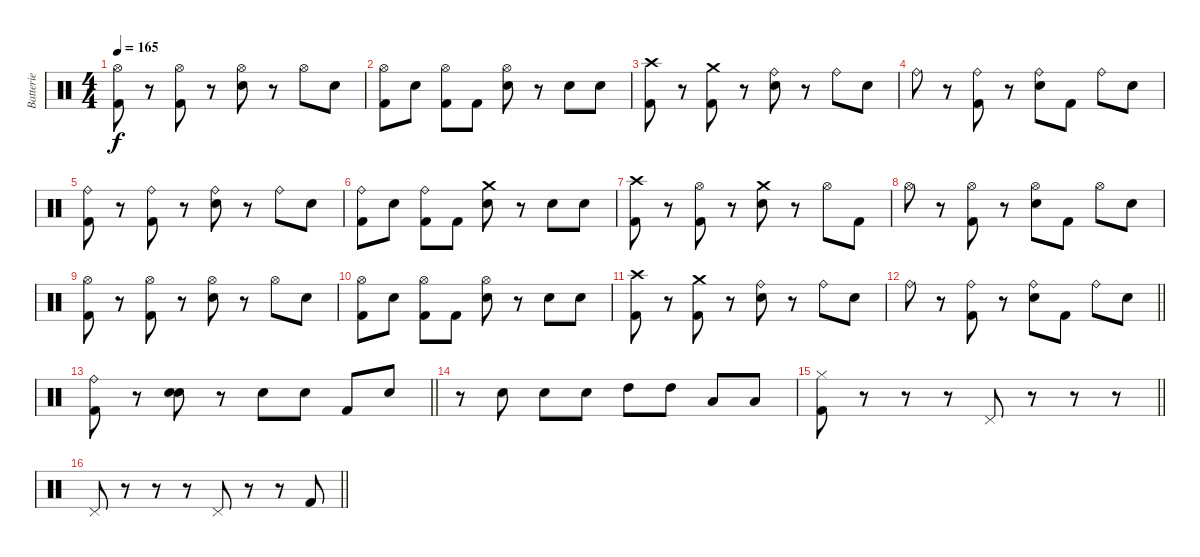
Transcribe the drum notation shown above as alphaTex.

\track ("Batterie" "Batterie") {instrument percussion}
\staff {score}
\articulation defaults
\ts (4 4)
\tempo 165
\clef neutral
\ks c
("Hi-Hat (open)" "Kick (hit) 2").8{dy f} r.8 ("Hi-Hat (open)" "Kick (hit) 2").8 r.8 ("Hi-Hat (open)" "Electric Snare (hit)").8 r.8 "Hi-Hat (open)".8 "Electric Snare (hit)".8 |
("Hi-Hat (open)" "Kick (hit) 2").8 "Electric Snare (hit)".8 ("Hi-Hat (open)" "Kick (hit) 2").8 "Kick (hit) 2".8 ("Hi-Hat (open)" "Electric Snare (hit)").8 r.8 "Electric Snare (hit)".8 "Electric Snare (hit)".8 |
("Crash high (hit)" "Kick (hit) 2").8 r.8 ("Crash medium (hit)" "Kick (hit) 2").8 r.8 ("Ride (bell)" "Electric Snare (hit)").8 r.8 "Ride (bell)".8 "Electric Snare (hit)".8 |
"Ride (bell)".8 r.8 ("Ride (bell)" "Kick (hit) 2").8 r.8 ("Ride (bell)" "Electric Snare (hit)").8 "Kick (hit) 2".8 "Ride (bell)".8 "Electric Snare (hit)".8 |
("Ride (bell)" "Kick (hit) 2").8 r.8 ("Ride (bell)" "Kick (hit) 2").8 r.8 ("Ride (bell)" "Electric Snare (hit)").8 r.8 "Ride (bell)".8 "Electric Snare (hit)".8 |
("Ride (bell)" "Kick (hit) 2").8 "Electric Snare (hit)".8 ("Ride (bell)" "Kick (hit) 2").8 "Kick (hit) 2".8 ("Crash medium (hit)" "Electric Snare (hit)").8 r.8 "Electric Snare (hit)".8 "Electric Snare (hit)".8 |
("Crash high (hit)" "Kick (hit) 2").8 r.8 ("Hi-Hat (open)" "Kick (hit) 2").8 r.8 ("Crash medium (hit)" "Electric Snare (hit)").8 r.8 "Hi-Hat (open)".8 "Kick (hit) 2".8 |
"Hi-Hat (open)".8 r.8 ("Hi-Hat (open)" "Kick (hit) 2").8 r.8 ("Hi-Hat (open)" "Electric Snare (hit)").8 "Kick (hit) 2".8 "Hi-Hat (open)".8 "Electric Snare (hit)".8 |
("Hi-Hat (open)" "Kick (hit) 2").8 r.8 ("Hi-Hat (open)" "Kick (hit) 2").8 r.8 ("Hi-Hat (open)" "Electric Snare (hit)").8 r.8 "Hi-Hat (open)".8 "Electric Snare (hit)".8 |
("Hi-Hat (open)" "Kick (hit) 2").8 "Electric Snare (hit)".8 ("Hi-Hat (open)" "Kick (hit) 2").8 "Kick (hit) 2".8 ("Hi-Hat (open)" "Electric Snare (hit)").8 r.8 "Electric Snare (hit)".8 "Electric Snare (hit)".8 |
("Crash high (hit)" "Kick (hit) 2").8 r.8 ("Crash medium (hit)" "Kick (hit) 2").8 r.8 ("Ride (bell)" "Electric Snare (hit)").8 r.8 "Ride (bell)".8 "Electric Snare (hit)".8 |
\barLineRight lightlight "Ride (bell)".8
r.8 ("Ride (bell)" "Kick (hit) 2").8 r.8 ("Ride (bell)" "Electric Snare (hit)").8 "Kick (hit) 2".8 "Ride (bell)".8 "Electric Snare (hit)".8 |
\barLineRight lightlight
("Ride (bell)" "Kick (hit) 2").8 r.8 ("Electric Snare (hit)" "Electric Snare (hit)").8{bu 120} r.8 "Electric Snare (hit)".8 "Electric Snare (hit)".8 "Kick (hit) 2".8 "Electric Snare (hit)".8 |
r.8 "Electric Snare (hit)".8 "Electric Snare (hit)".8 "Electric Snare (hit)".8 "High Tom (hit)".8 "High Tom (hit)".8 "Low Tom (hit)".8 "Low Tom (hit)".8 |
\barLineRight lightlight
("Hi-Hat (closed)" "Kick (hit) 2").8 r.8 r.8 r.8 "Pedal Hi-Hat (hit)".8 r.8 r.8 r.8 |
\barLineRight lightlight "Pedal Hi-Hat (hit)".8
r.8 r.8 r.8 "Pedal Hi-Hat (hit)".8 r.8 r.8 "Kick (hit) 2".8
